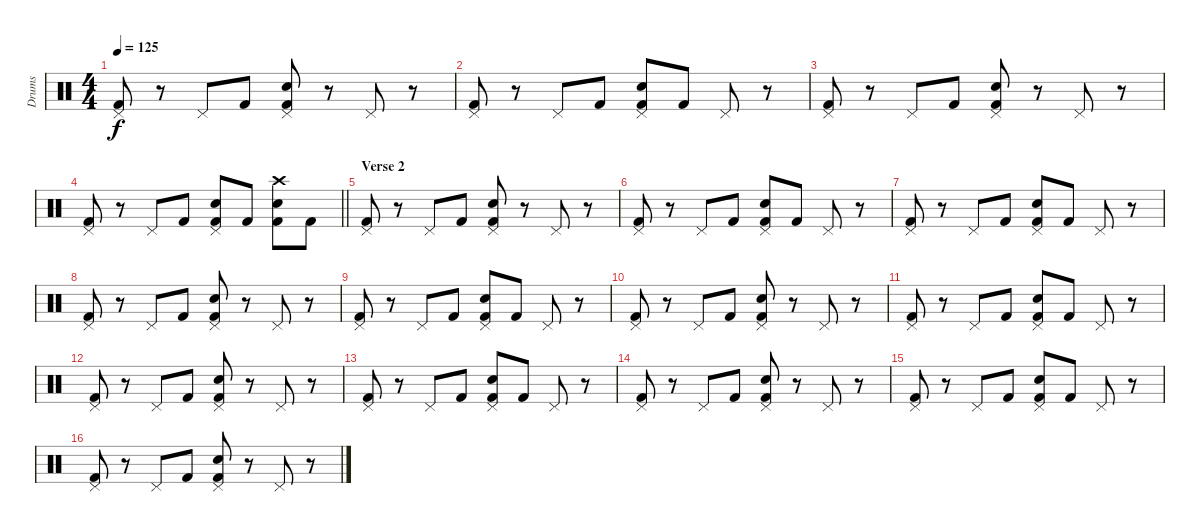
\track ("Drums" "Drums") {instrument percussion}
\staff {score}
\articulation defaults
\ts (4 4)
\tempo 125
\clef neutral
\ks c
("Pedal Hi-Hat (hit)" "Kick (hit) 2").8{dy f} r.8 "Pedal Hi-Hat (hit)".8 "Kick (hit) 2".8 ("Pedal Hi-Hat (hit)" "Electric Snare (hit)" "Kick (hit) 2").8 r.8 "Pedal Hi-Hat (hit)".8 r.8 |
("Pedal Hi-Hat (hit)" "Kick (hit) 2").8 r.8 "Pedal Hi-Hat (hit)".8 "Kick (hit) 2".8 ("Pedal Hi-Hat (hit)" "Electric Snare (hit)" "Kick (hit) 2").8 "Kick (hit) 2".8 "Pedal Hi-Hat (hit)".8 r.8 |
("Pedal Hi-Hat (hit)" "Kick (hit) 2").8 r.8 "Pedal Hi-Hat (hit)".8 "Kick (hit) 2".8 ("Pedal Hi-Hat (hit)" "Electric Snare (hit)" "Kick (hit) 2").8 r.8 "Pedal Hi-Hat (hit)".8 r.8 |
\barLineRight lightlight
("Pedal Hi-Hat (hit)" "Kick (hit) 2").8 r.8 "Pedal Hi-Hat (hit)".8 "Kick (hit) 2".8 ("Pedal Hi-Hat (hit)" "Electric Snare (hit)" "Kick (hit) 2").8 "Kick (hit) 2".8 ("Crash high (hit)" "Electric Snare (hit)" "Kick (hit) 2").8 "Kick (hit) 2".8 |
\section ("" "Verse 2")
("Pedal Hi-Hat (hit)" "Kick (hit) 2").8 r.8 "Pedal Hi-Hat (hit)".8 "Kick (hit) 2".8 ("Pedal Hi-Hat (hit)" "Electric Snare (hit)" "Kick (hit) 2").8 r.8 "Pedal Hi-Hat (hit)".8 r.8 |
("Pedal Hi-Hat (hit)" "Kick (hit) 2").8 r.8 "Pedal Hi-Hat (hit)".8 "Kick (hit) 2".8 ("Pedal Hi-Hat (hit)" "Electric Snare (hit)" "Kick (hit) 2").8 "Kick (hit) 2".8 "Pedal Hi-Hat (hit)".8 r.8 |
("Pedal Hi-Hat (hit)" "Kick (hit) 2").8 r.8 "Pedal Hi-Hat (hit)".8 "Kick (hit) 2".8 ("Pedal Hi-Hat (hit)" "Electric Snare (hit)" "Kick (hit) 2").8 "Kick (hit) 2".8 "Pedal Hi-Hat (hit)".8 r.8 |
("Pedal Hi-Hat (hit)" "Kick (hit) 2").8 r.8 "Pedal Hi-Hat (hit)".8 "Kick (hit) 2".8 ("Pedal Hi-Hat (hit)" "Electric Snare (hit)" "Kick (hit) 2").8 r.8 "Pedal Hi-Hat (hit)".8 r.8 |
("Pedal Hi-Hat (hit)" "Kick (hit) 2").8 r.8 "Pedal Hi-Hat (hit)".8 "Kick (hit) 2".8 ("Pedal Hi-Hat (hit)" "Electric Snare (hit)" "Kick (hit) 2").8 "Kick (hit) 2".8 "Pedal Hi-Hat (hit)".8 r.8 |
("Pedal Hi-Hat (hit)" "Kick (hit) 2").8 r.8 "Pedal Hi-Hat (hit)".8 "Kick (hit) 2".8 ("Pedal Hi-Hat (hit)" "Electric Snare (hit)" "Kick (hit) 2").8 r.8 "Pedal Hi-Hat (hit)".8 r.8 |
("Pedal Hi-Hat (hit)" "Kick (hit) 2").8 r.8 "Pedal Hi-Hat (hit)".8 "Kick (hit) 2".8 ("Pedal Hi-Hat (hit)" "Electric Snare (hit)" "Kick (hit) 2").8 "Kick (hit) 2".8 "Pedal Hi-Hat (hit)".8 r.8 |
("Pedal Hi-Hat (hit)" "Kick (hit) 2").8 r.8 "Pedal Hi-Hat (hit)".8 "Kick (hit) 2".8 ("Pedal Hi-Hat (hit)" "Electric Snare (hit)" "Kick (hit) 2").8 r.8 "Pedal Hi-Hat (hit)".8 r.8 |
("Pedal Hi-Hat (hit)" "Kick (hit) 2").8 r.8 "Pedal Hi-Hat (hit)".8 "Kick (hit) 2".8 ("Pedal Hi-Hat (hit)" "Electric Snare (hit)" "Kick (hit) 2").8 "Kick (hit) 2".8 "Pedal Hi-Hat (hit)".8 r.8 |
("Pedal Hi-Hat (hit)" "Kick (hit) 2").8 r.8 "Pedal Hi-Hat (hit)".8 "Kick (hit) 2".8 ("Pedal Hi-Hat (hit)" "Electric Snare (hit)" "Kick (hit) 2").8 r.8 "Pedal Hi-Hat (hit)".8 r.8 |
("Pedal Hi-Hat (hit)" "Kick (hit) 2").8 r.8 "Pedal Hi-Hat (hit)".8 "Kick (hit) 2".8 ("Pedal Hi-Hat (hit)" "Electric Snare (hit)" "Kick (hit) 2").8 "Kick (hit) 2".8 "Pedal Hi-Hat (hit)".8 r.8 |
("Pedal Hi-Hat (hit)" "Kick (hit) 2").8 r.8 "Pedal Hi-Hat (hit)".8 "Kick (hit) 2".8 ("Pedal Hi-Hat (hit)" "Electric Snare (hit)" "Kick (hit) 2").8 r.8 "Pedal Hi-Hat (hit)".8 r.8
